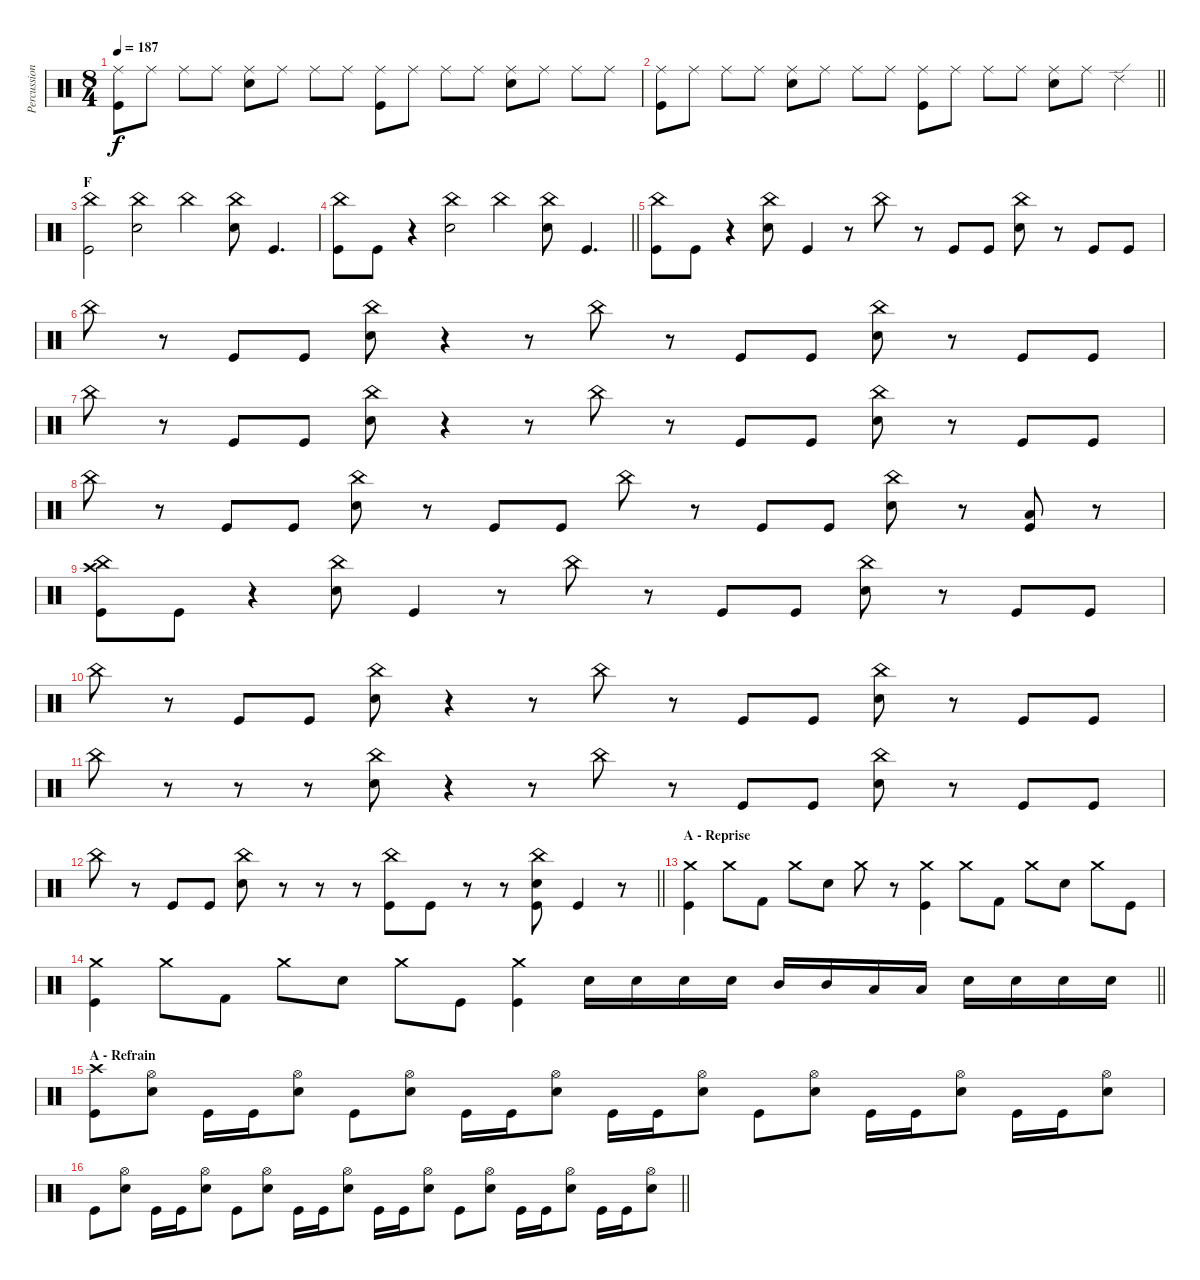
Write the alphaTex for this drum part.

\track ("Percussions" "Percussion") {instrument percussion}
\staff {score}
\articulation defaults
\ts (8 4)
\tempo 187
\clef neutral
\ks c
("Ride (middle)" "Kick (hit)").8{dy f} "Ride (middle)".8 "Ride (middle)".8 "Ride (middle)".8 ("Ride (middle)" "Snare (hit) 2").8 "Ride (middle)".8 "Ride (middle)".8 "Ride (middle)".8 ("Ride (middle)" "Kick (hit)").8 "Ride (middle)".8 "Ride (middle)".8 "Ride (middle)".8 ("Ride (middle)" "Snare (hit) 2").8 "Ride (middle)".8 "Ride (middle)".8 "Ride (middle)".8 |
\barLineRight lightlight
("Ride (middle)" "Kick (hit)").8 "Ride (middle)".8 "Ride (middle)".8 "Ride (middle)".8 ("Ride (middle)" "Snare (hit) 2").8 "Ride (middle)".8 "Ride (middle)".8 "Ride (middle)".8 ("Ride (middle)" "Kick (hit)").8 "Ride (middle)".8 "Ride (middle)".8 "Ride (middle)".8 ("Ride (middle)" "Snare (hit) 2").8 "Ride (middle)".8 "Ride (edge) 2".4 |
\section ("" "F")
("China (hit)" "Kick (hit)").2 ("China (hit)" "Snare (hit) 2").2 "China (hit)".2 ("China (hit)" "Snare (hit) 2").8 "Kick (hit)".4{d} |
\barLineRight lightlight
("China (hit)" "Kick (hit)").8 "Kick (hit)".8 r.4 ("China (hit)" "Snare (hit) 2").2 "China (hit)".2 ("China (hit)" "Snare (hit) 2").8 "Kick (hit)".4{d} |
\section ("" "")
("China (hit)" "Kick (hit)").8 "Kick (hit)".8 r.4 ("China (hit)" "Snare (hit) 2").8 "Kick (hit)".4 r.8 "China (hit)".8 r.8 "Kick (hit)".8 "Kick (hit)".8 ("China (hit)" "Snare (hit) 2").8 r.8 "Kick (hit)".8 "Kick (hit)".8 |
"China (hit)".8 r.8 "Kick (hit)".8 "Kick (hit)".8 ("China (hit)" "Snare (hit) 2").8 r.4 r.8 "China (hit)".8 r.8 "Kick (hit)".8 "Kick (hit)".8 ("China (hit)" "Snare (hit) 2").8 r.8 "Kick (hit)".8 "Kick (hit)".8 |
"China (hit)".8 r.8 "Kick (hit)".8 "Kick (hit)".8 ("China (hit)" "Snare (hit) 2").8 r.4 r.8 "China (hit)".8 r.8 "Kick (hit)".8 "Kick (hit)".8 ("China (hit)" "Snare (hit) 2").8 r.8 "Kick (hit)".8 "Kick (hit)".8 |
"China (hit)".8 r.8 "Kick (hit)".8 "Kick (hit)".8 ("China (hit)" "Snare (hit) 2").8 r.8 "Kick (hit)".8 "Kick (hit)".8 "China (hit)".8 r.8 "Kick (hit)".8 "Kick (hit)".8 ("China (hit)" "Snare (hit) 2").8 r.8 ("Low Tom (hit)" "Kick (hit)").8 r.8 |
("China (hit)" "Crash high (hit)" "Kick (hit)").8 "Kick (hit)".8 r.4 ("China (hit)" "Snare (hit) 2").8 "Kick (hit)".4 r.8 "China (hit)".8 r.8 "Kick (hit)".8 "Kick (hit)".8 ("China (hit)" "Snare (hit) 2").8 r.8 "Kick (hit)".8 "Kick (hit)".8 |
"China (hit)".8 r.8 "Kick (hit)".8 "Kick (hit)".8 ("China (hit)" "Snare (hit) 2").8 r.4 r.8 "China (hit)".8 r.8 "Kick (hit)".8 "Kick (hit)".8 ("China (hit)" "Snare (hit) 2").8 r.8 "Kick (hit)".8 "Kick (hit)".8 |
"China (hit)".8 r.8 r.8 r.8 ("China (hit)" "Snare (hit) 2").8 r.4 r.8 "China (hit)".8 r.8 "Kick (hit)".8 "Kick (hit)".8 ("China (hit)" "Snare (hit) 2").8 r.8 "Kick (hit)".8 "Kick (hit)".8 |
\barLineRight lightlight "China (hit)".8
r.8 "Kick (hit)".8 "Kick (hit)".8 ("China (hit)" "Snare (hit) 2").8 r.8 r.8 r.8 ("China (hit)" "Kick (hit)").8 "Kick (hit)".8 r.8 r.8 ("China (hit)" "Snare (hit) 2" "Kick (hit)").8 "Kick (hit)".4 r.8 |
\section ("" "A - Reprise")
("Crash medium (hit)" "Kick (hit)").4 "Crash medium (hit)".8 "Kick (hit) 2".8 "Crash medium (hit)".8 "Snare (hit) 2".8 "Crash medium (hit)".8 r.8 ("Crash medium (hit)" "Kick (hit)").4 "Crash medium (hit)".8 "Kick (hit) 2".8 "Crash medium (hit)".8 "Snare (hit) 2".8 "Crash medium (hit)".8 "Kick (hit)".8 |
\barLineRight lightlight
("Crash medium (hit)" "Kick (hit)").4 "Crash medium (hit)".8 "Kick (hit) 2".8 "Crash medium (hit)".8 "Snare (hit) 2".8 "Crash medium (hit)".8 "Kick (hit)".8 ("Crash medium (hit)" "Kick (hit)").4 "Snare (hit) 2".16 "Snare (hit) 2".16 "Snare (hit) 2".16 "Snare (hit) 2".16 "Mid Tom (hit)".16 "Mid Tom (hit)".16 "Low Tom (hit)".16 "Low Tom (hit)".16 "Snare (hit) 2".16 "Snare (hit) 2".16 "Snare (hit) 2".16 "Snare (hit) 2".16 |
\section ("" "A - Refrain")
("Crash high (hit)" "Kick (hit)").8 ("Hi-Hat (open)" "Snare (hit) 2").8 "Kick (hit)".16 "Kick (hit)".16 ("Hi-Hat (open)" "Snare (hit) 2").8 "Kick (hit)".8 ("Hi-Hat (open)" "Snare (hit) 2").8 "Kick (hit)".16 "Kick (hit)".16 ("Hi-Hat (open)" "Snare (hit) 2").8 "Kick (hit)".16 "Kick (hit)".16 ("Hi-Hat (open)" "Snare (hit) 2").8 "Kick (hit)".8 ("Hi-Hat (open)" "Snare (hit) 2").8 "Kick (hit)".16 "Kick (hit)".16 ("Hi-Hat (open)" "Snare (hit) 2").8 "Kick (hit)".16 "Kick (hit)".16 ("Hi-Hat (open)" "Snare (hit) 2").8 |
\barLineRight lightlight "Kick (hit)".8
("Hi-Hat (open)" "Snare (hit) 2").8 "Kick (hit)".16 "Kick (hit)".16 ("Hi-Hat (open)" "Snare (hit) 2").8 "Kick (hit)".8 ("Hi-Hat (open)" "Snare (hit) 2").8 "Kick (hit)".16 "Kick (hit)".16 ("Hi-Hat (open)" "Snare (hit) 2").8 "Kick (hit)".16 "Kick (hit)".16 ("Hi-Hat (open)" "Snare (hit) 2").8 "Kick (hit)".8 ("Hi-Hat (open)" "Snare (hit) 2").8 "Kick (hit)".16 "Kick (hit)".16 ("Hi-Hat (open)" "Snare (hit) 2").8 "Kick (hit)".16 "Kick (hit)".16 ("Hi-Hat (open)" "Snare (hit) 2").8
